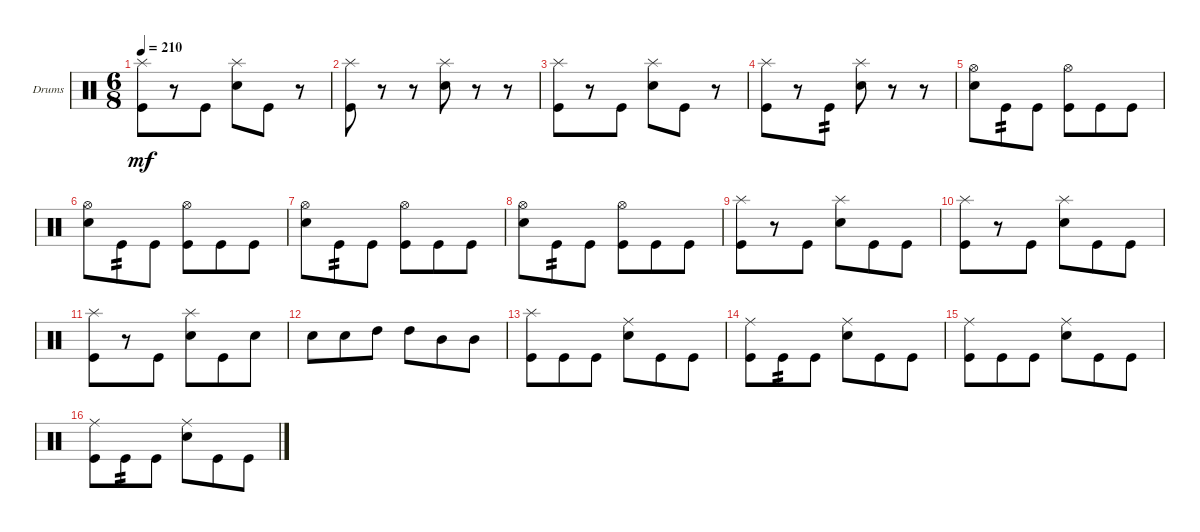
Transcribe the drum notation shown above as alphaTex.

\bracketExtendMode groupsimilarinstruments
\firstSystemTrackNameOrientation horizontal
\otherSystemsTrackNameOrientation horizontal
\track ("Drumkit" "Drums") {instrument percussion}
\staff {score}
\articulation defaults
\ts (6 8)
\tempo 210
\clef neutral
\ks c
("Kick (hit)" "Splash (hit)").8{dy mf} r.8 "Kick (hit)".8 ("Snare (hit) 2" "Splash (hit)").8 "Kick (hit)".8 r.8 |
("Kick (hit)" "Splash (hit)").8 r.8 r.8 ("Snare (hit) 2" "Splash (hit)").8 r.8 r.8 |
("Kick (hit)" "Splash (hit)").8 r.8 "Kick (hit)".8 ("Snare (hit) 2" "Splash (hit)").8 "Kick (hit)".8 r.8 |
("Kick (hit)" "Splash (hit)").8 r.8 "Kick (hit)".8{tp 2} ("Snare (hit) 2" "Splash (hit)").8 r.8 r.8 |
("Snare (hit) 2" "Hi-Hat (open)").8 "Kick (hit)".8{tp 2} "Kick (hit)".8 ("Kick (hit)" "Hi-Hat (open)").8 "Kick (hit)".8 "Kick (hit)".8 |
("Snare (hit) 2" "Hi-Hat (open)").8 "Kick (hit)".8{tp 2} "Kick (hit)".8 ("Kick (hit)" "Hi-Hat (open)").8 "Kick (hit)".8 "Kick (hit)".8 |
("Snare (hit) 2" "Hi-Hat (open)").8 "Kick (hit)".8{tp 2} "Kick (hit)".8 ("Kick (hit)" "Hi-Hat (open)").8 "Kick (hit)".8 "Kick (hit)".8 |
("Snare (hit) 2" "Hi-Hat (open)").8 "Kick (hit)".8{tp 2} "Kick (hit)".8 ("Kick (hit)" "Hi-Hat (open)").8 "Kick (hit)".8 "Kick (hit)".8 |
("Kick (hit)" "Splash (hit)").8 r.8 "Kick (hit)".8 ("Snare (hit) 2" "Splash (hit)").8 "Kick (hit)".8 "Kick (hit)".8 |
("Kick (hit)" "Splash (hit)").8 r.8 "Kick (hit)".8 ("Snare (hit) 2" "Splash (hit)").8 "Kick (hit)".8 "Kick (hit)".8 |
("Kick (hit)" "Splash (hit)").8 r.8 "Kick (hit)".8 ("Snare (hit) 2" "Splash (hit)").8 "Kick (hit)".8 "Snare (hit) 2".8 |
"Snare (hit) 2".8 "Snare (hit) 2".8 "High Tom (hit)".8 "High Tom (hit)".8 "Mid Tom (hit)".8 "Mid Tom (hit)".8 |
("Kick (hit)" "Splash (hit)").8 "Kick (hit)".8 "Kick (hit)".8 ("Snare (hit) 2" "Ride (middle)").8 "Kick (hit)".8 "Kick (hit)".8 |
("Kick (hit)" "Ride (middle)").8 "Kick (hit)".8{tp 2} "Kick (hit)".8 ("Snare (hit) 2" "Ride (middle)").8 "Kick (hit)".8 "Kick (hit)".8 |
("Kick (hit)" "Ride (middle)").8 "Kick (hit)".8 "Kick (hit)".8 ("Snare (hit) 2" "Ride (middle)").8 "Kick (hit)".8 "Kick (hit)".8 |
("Kick (hit)" "Ride (middle)").8 "Kick (hit)".8{tp 2} "Kick (hit)".8 ("Snare (hit) 2" "Ride (middle)").8 "Kick (hit)".8 "Kick (hit)".8
